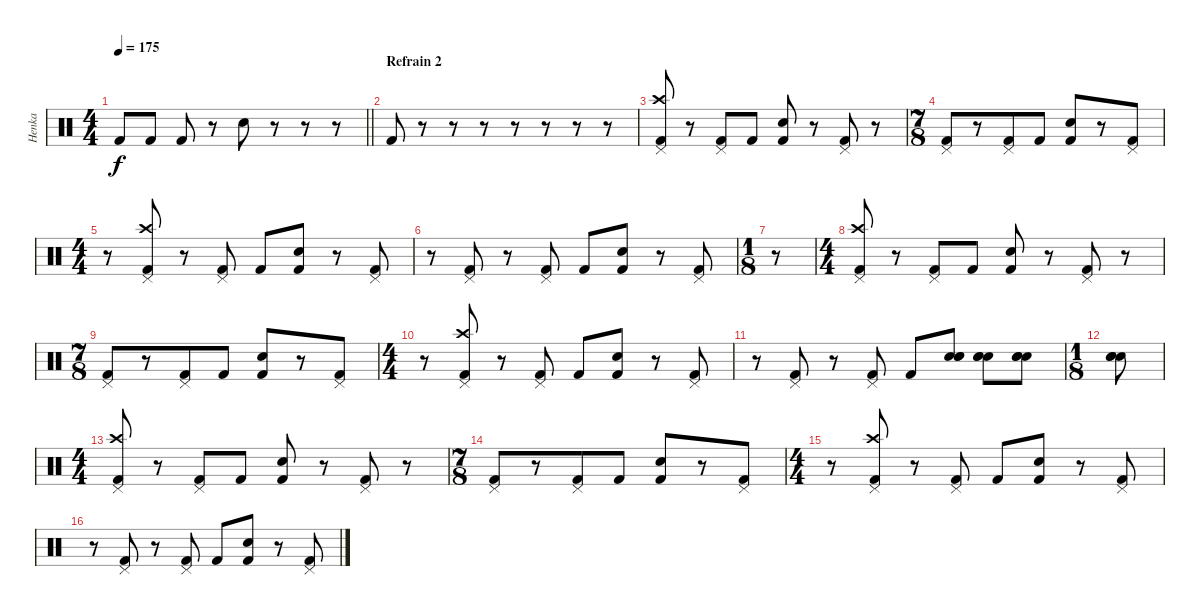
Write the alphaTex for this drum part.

\track ("Henka" "Henka") {instrument percussion}
\staff {score}
\articulation defaults
\ts (4 4)
\tempo 175
\clef neutral
\barLineRight lightlight
\ks c "Kick (hit) 2".8{dy f} "Kick (hit) 2".8 "Kick (hit) 2".8
r.8 "Snare (hit) 2".8 r.8 r.8 r.8 |
\section ("" "Refrain 2")
"Kick (hit) 2".8 r.8 r.8 r.8 r.8 r.8 r.8 r.8 |
("Crash high (hit)" "Pedal Hi-Hat (hit)" "Kick (hit) 2").8 r.8 ("Pedal Hi-Hat (hit)" "Kick (hit) 2").8 "Kick (hit) 2".8 ("Snare (hit) 2" "Kick (hit) 2").8 r.8 ("Pedal Hi-Hat (hit)" "Kick (hit) 2").8 r.8 |
\ts (7 8)
("Pedal Hi-Hat (hit)" "Kick (hit) 2").8 r.8 ("Pedal Hi-Hat (hit)" "Kick (hit) 2").8 "Kick (hit) 2".8 ("Snare (hit) 2" "Kick (hit) 2").8 r.8 ("Pedal Hi-Hat (hit)" "Kick (hit) 2").8 |
\ts (4 4)
r.8 ("Crash high (hit)" "Pedal Hi-Hat (hit)" "Kick (hit) 2").8 r.8 ("Pedal Hi-Hat (hit)" "Kick (hit) 2").8 "Kick (hit) 2".8 ("Snare (hit) 2" "Kick (hit) 2").8 r.8 ("Pedal Hi-Hat (hit)" "Kick (hit) 2").8 |
r.8 ("Pedal Hi-Hat (hit)" "Kick (hit) 2").8 r.8 ("Pedal Hi-Hat (hit)" "Kick (hit) 2").8 "Kick (hit) 2".8 ("Snare (hit) 2" "Kick (hit) 2").8 r.8 ("Pedal Hi-Hat (hit)" "Kick (hit) 2").8 |
\ts (1 8)
r.8 |
\ts (4 4)
("Crash high (hit)" "Pedal Hi-Hat (hit)" "Kick (hit) 2").8 r.8 ("Pedal Hi-Hat (hit)" "Kick (hit) 2").8 "Kick (hit) 2".8 ("Snare (hit) 2" "Kick (hit) 2").8 r.8 ("Pedal Hi-Hat (hit)" "Kick (hit) 2").8 r.8 |
\ts (7 8)
("Pedal Hi-Hat (hit)" "Kick (hit) 2").8 r.8 ("Pedal Hi-Hat (hit)" "Kick (hit) 2").8 "Kick (hit) 2".8 ("Snare (hit) 2" "Kick (hit) 2").8 r.8 ("Pedal Hi-Hat (hit)" "Kick (hit) 2").8 |
\ts (4 4)
r.8 ("Crash high (hit)" "Pedal Hi-Hat (hit)" "Kick (hit) 2").8 r.8 ("Pedal Hi-Hat (hit)" "Kick (hit) 2").8 "Kick (hit) 2".8 ("Snare (hit) 2" "Kick (hit) 2").8 r.8 ("Pedal Hi-Hat (hit)" "Kick (hit) 2").8 |
r.8 ("Pedal Hi-Hat (hit)" "Kick (hit) 2").8 r.8 ("Pedal Hi-Hat (hit)" "Kick (hit) 2").8 "Kick (hit) 2".8 ("Snare (hit) 2" "Electric Snare (hit)" "Snare (hit) 2").8 ("Snare (hit) 2" "Electric Snare (hit)" "Snare (hit) 2").8 ("Snare (hit) 2" "Electric Snare (hit)" "Snare (hit) 2").8 |
\ts (1 8)
("Snare (hit) 2" "Electric Snare (hit)" "Snare (hit) 2").8 |
\ts (4 4)
("Crash high (hit)" "Pedal Hi-Hat (hit)" "Kick (hit) 2").8 r.8 ("Pedal Hi-Hat (hit)" "Kick (hit) 2").8 "Kick (hit) 2".8 ("Snare (hit) 2" "Kick (hit) 2").8 r.8 ("Pedal Hi-Hat (hit)" "Kick (hit) 2").8 r.8 |
\ts (7 8)
("Pedal Hi-Hat (hit)" "Kick (hit) 2").8 r.8 ("Pedal Hi-Hat (hit)" "Kick (hit) 2").8 "Kick (hit) 2".8 ("Snare (hit) 2" "Kick (hit) 2").8 r.8 ("Pedal Hi-Hat (hit)" "Kick (hit) 2").8 |
\ts (4 4)
r.8 ("Crash high (hit)" "Pedal Hi-Hat (hit)" "Kick (hit) 2").8 r.8 ("Pedal Hi-Hat (hit)" "Kick (hit) 2").8 "Kick (hit) 2".8 ("Snare (hit) 2" "Kick (hit) 2").8 r.8 ("Pedal Hi-Hat (hit)" "Kick (hit) 2").8 |
r.8 ("Pedal Hi-Hat (hit)" "Kick (hit) 2").8 r.8 ("Pedal Hi-Hat (hit)" "Kick (hit) 2").8 "Kick (hit) 2".8 ("Snare (hit) 2" "Kick (hit) 2").8 r.8 ("Pedal Hi-Hat (hit)" "Kick (hit) 2").8
